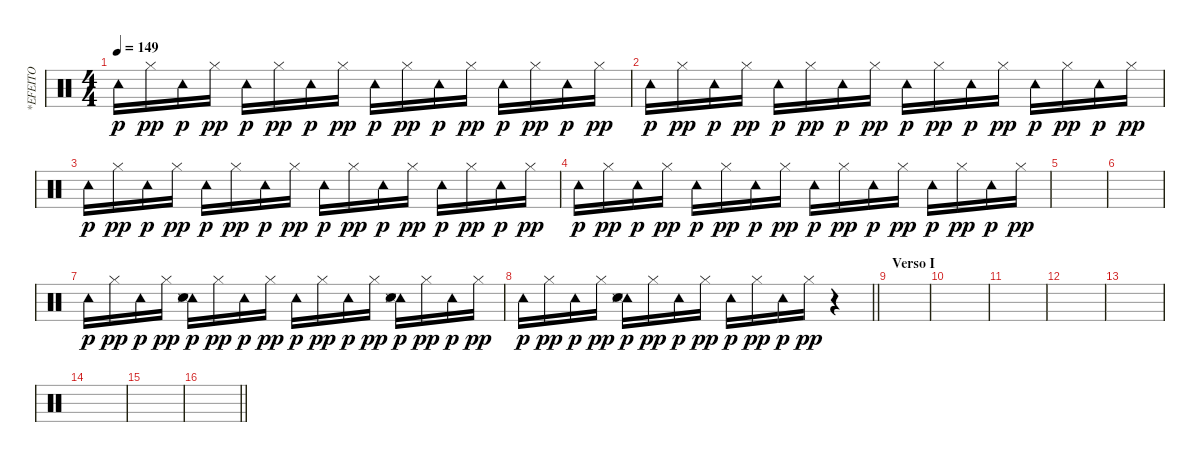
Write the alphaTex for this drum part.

\track ("*EFEITO" "*EFEITO") {instrument percussion}
\staff {score}
\articulation defaults
\ts (4 4)
\tempo 149
\clef neutral
\ks c "Tambourine (hit)".16{dy p} "Hi-Hat (closed)".16{dy pp} "Tambourine (hit)".16{dy p} "Hi-Hat (closed)".16{dy pp} "Tambourine (hit)".16{dy p} "Hi-Hat (closed)".16{dy pp} "Tambourine (hit)".16{dy p} "Hi-Hat (closed)".16{dy pp} "Tambourine (hit)".16{dy p} "Hi-Hat (closed)".16{dy pp} "Tambourine (hit)".16{dy p} "Hi-Hat (closed)".16{dy pp} "Tambourine (hit)".16{dy p} "Hi-Hat (closed)".16{dy pp} "Tambourine (hit)".16{dy p} "Hi-Hat (closed)".16{dy pp}
|
"Tambourine (hit)".16{dy p} "Hi-Hat (closed)".16{dy pp} "Tambourine (hit)".16{dy p} "Hi-Hat (closed)".16{dy pp} "Tambourine (hit)".16{dy p} "Hi-Hat (closed)".16{dy pp} "Tambourine (hit)".16{dy p} "Hi-Hat (closed)".16{dy pp} "Tambourine (hit)".16{dy p} "Hi-Hat (closed)".16{dy pp} "Tambourine (hit)".16{dy p} "Hi-Hat (closed)".16{dy pp} "Tambourine (hit)".16{dy p} "Hi-Hat (closed)".16{dy pp} "Tambourine (hit)".16{dy p} "Hi-Hat (closed)".16{dy pp} |
"Tambourine (hit)".16{dy p} "Hi-Hat (closed)".16{dy pp} "Tambourine (hit)".16{dy p} "Hi-Hat (closed)".16{dy pp} "Tambourine (hit)".16{dy p} "Hi-Hat (closed)".16{dy pp} "Tambourine (hit)".16{dy p} "Hi-Hat (closed)".16{dy pp} "Tambourine (hit)".16{dy p} "Hi-Hat (closed)".16{dy pp} "Tambourine (hit)".16{dy p} "Hi-Hat (closed)".16{dy pp} "Tambourine (hit)".16{dy p} "Hi-Hat (closed)".16{dy pp} "Tambourine (hit)".16{dy p} "Hi-Hat (closed)".16{dy pp} |
"Tambourine (hit)".16{dy p} "Hi-Hat (closed)".16{dy pp} "Tambourine (hit)".16{dy p} "Hi-Hat (closed)".16{dy pp} "Tambourine (hit)".16{dy p} "Hi-Hat (closed)".16{dy pp} "Tambourine (hit)".16{dy p} "Hi-Hat (closed)".16{dy pp} "Tambourine (hit)".16{dy p} "Hi-Hat (closed)".16{dy pp} "Tambourine (hit)".16{dy p} "Hi-Hat (closed)".16{dy pp} "Tambourine (hit)".16{dy p} "Hi-Hat (closed)".16{dy pp} "Tambourine (hit)".16{dy p} "Hi-Hat (closed)".16{dy pp} |
|
|
"Tambourine (hit)".16{dy p} "Hi-Hat (closed)".16{dy pp} "Tambourine (hit)".16{dy p} "Hi-Hat (closed)".16{dy pp} ("Tambourine (hit)" "Metronome (hit)" "Electric Snare (hit)").16{dy p} "Hi-Hat (closed)".16{dy pp} "Tambourine (hit)".16{dy p} "Hi-Hat (closed)".16{dy pp} "Tambourine (hit)".16{dy p} "Hi-Hat (closed)".16{dy pp} "Tambourine (hit)".16{dy p} "Hi-Hat (closed)".16{dy pp} ("Tambourine (hit)" "Metronome (hit)" "Electric Snare (hit)").16{dy p} "Hi-Hat (closed)".16{dy pp} "Tambourine (hit)".16{dy p} "Hi-Hat (closed)".16{dy pp} |
\barLineRight lightlight "Tambourine (hit)".16{dy p} "Hi-Hat (closed)".16{dy pp} "Tambourine (hit)".16{dy p} "Hi-Hat (closed)".16{dy pp}
("Tambourine (hit)" "Metronome (hit)" "Electric Snare (hit)").16{dy p} "Hi-Hat (closed)".16{dy pp} "Tambourine (hit)".16{dy p} "Hi-Hat (closed)".16{dy pp} "Tambourine (hit)".16{dy p} "Hi-Hat (closed)".16{dy pp} "Tambourine (hit)".16{dy p} "Hi-Hat (closed)".16{dy pp} r.4 |
\section ("" "Verso I")
|
|
|
|
|
|
|
\barLineRight lightlight
